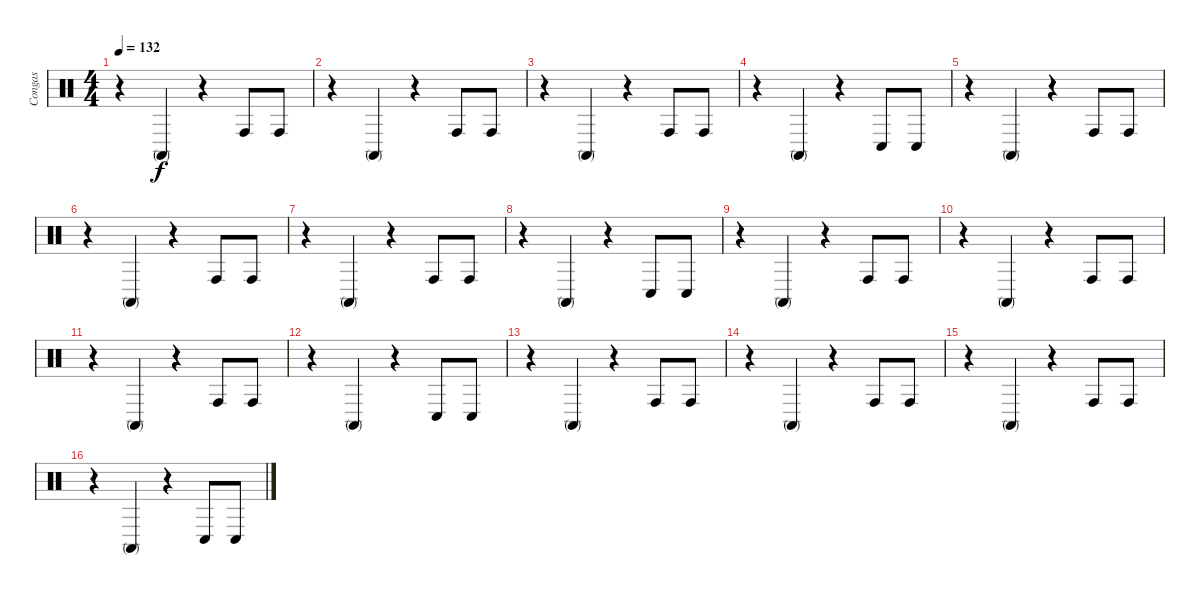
\track ("Congas" "Congas") {instrument percussion}
\staff {score}
\articulation defaults
\ts (4 4)
\tempo 132
\clef neutral
\ks c
r.4{dy f} "Conga high (mute)".4 r.4 "Conga high (hit)".8 "Conga high (hit)".8 |
r.4 "Conga high (mute)".4 r.4 "Conga high (hit)".8 "Conga high (hit)".8 |
r.4 "Conga high (mute)".4 r.4 "Conga high (hit)".8 "Conga high (hit)".8 |
r.4 "Conga high (mute)".4 r.4 "Conga low (hit)".8 "Conga low (hit)".8 |
r.4 "Conga high (mute)".4 r.4 "Conga high (hit)".8 "Conga high (hit)".8 |
r.4 "Conga high (mute)".4 r.4 "Conga high (hit)".8 "Conga high (hit)".8 |
r.4 "Conga high (mute)".4 r.4 "Conga high (hit)".8 "Conga high (hit)".8 |
r.4 "Conga high (mute)".4 r.4 "Conga low (hit)".8 "Conga low (hit)".8 |
r.4 "Conga high (mute)".4 r.4 "Conga high (hit)".8 "Conga high (hit)".8 |
r.4 "Conga high (mute)".4 r.4 "Conga high (hit)".8 "Conga high (hit)".8 |
r.4 "Conga high (mute)".4 r.4 "Conga high (hit)".8 "Conga high (hit)".8 |
r.4 "Conga high (mute)".4 r.4 "Conga low (hit)".8 "Conga low (hit)".8 |
r.4 "Conga high (mute)".4 r.4 "Conga high (hit)".8 "Conga high (hit)".8 |
r.4 "Conga high (mute)".4 r.4 "Conga high (hit)".8 "Conga high (hit)".8 |
r.4 "Conga high (mute)".4 r.4 "Conga high (hit)".8 "Conga high (hit)".8 |
r.4 "Conga high (mute)".4 r.4 "Conga low (hit)".8 "Conga low (hit)".8
